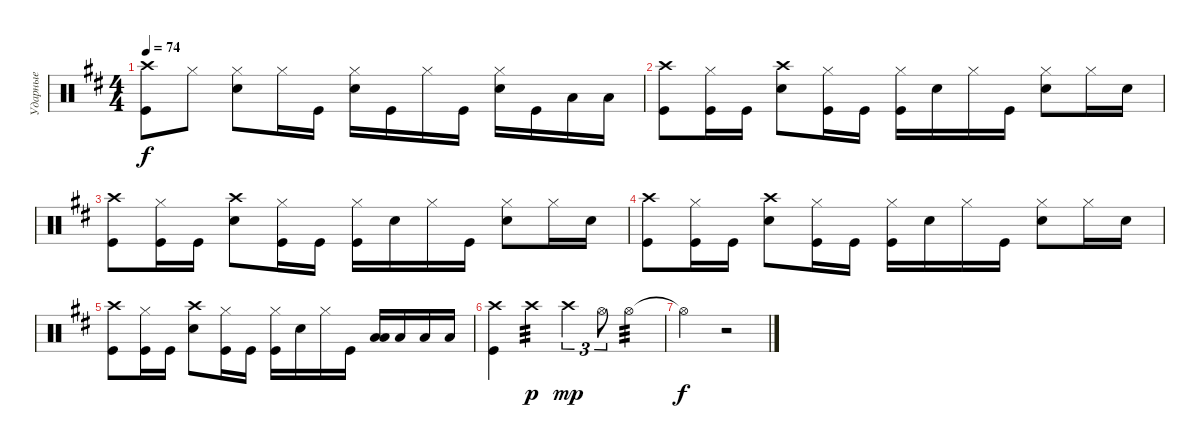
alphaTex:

\track ("Ударные" "Ударные") {instrument percussion}
\staff {score}
\articulation defaults
\ts (4 4)
\tempo 74
\clef neutral
\ks bminor
("Kick (hit)" "Crash high (hit)").8{dy f} "Hi-Hat (closed)".8 ("Snare (hit) 2" "Hi-Hat (closed)").8 "Hi-Hat (closed)".16 "Kick (hit)".16 ("Snare (hit) 2" "Hi-Hat (closed)").16 "Kick (hit)".16 "Hi-Hat (closed)".16 "Kick (hit)".16 ("Snare (hit) 2" "Hi-Hat (closed)").16 "Kick (hit)".16 "Low Tom (hit)".16 "Low Tom (hit)".16 |
("Kick (hit)" "Crash high (hit)").8 ("Hi-Hat (closed)" "Kick (hit)").16 "Kick (hit)".16 ("Snare (hit) 2" "Crash high (hit)").8 ("Hi-Hat (closed)" "Kick (hit)").16 "Kick (hit)".16 ("Hi-Hat (closed)" "Kick (hit)").16 "Snare (hit) 2".16 "Hi-Hat (closed)".16 "Kick (hit)".16 ("Hi-Hat (closed)" "Snare (hit) 2").8 "Hi-Hat (closed)".16 "Snare (hit) 2".16 |
("Kick (hit)" "Crash high (hit)").8 ("Hi-Hat (closed)" "Kick (hit)").16 "Kick (hit)".16 ("Snare (hit) 2" "Crash high (hit)").8 ("Hi-Hat (closed)" "Kick (hit)").16 "Kick (hit)".16 ("Hi-Hat (closed)" "Kick (hit)").16 "Snare (hit) 2".16 "Hi-Hat (closed)".16 "Kick (hit)".16 ("Hi-Hat (closed)" "Snare (hit) 2").8 "Hi-Hat (closed)".16 "Snare (hit) 2".16 |
("Kick (hit)" "Crash high (hit)").8 ("Hi-Hat (closed)" "Kick (hit)").16 "Kick (hit)".16 ("Snare (hit) 2" "Crash high (hit)").8 ("Hi-Hat (closed)" "Kick (hit)").16 "Kick (hit)".16 ("Hi-Hat (closed)" "Kick (hit)").16 "Snare (hit) 2".16 "Hi-Hat (closed)".16 "Kick (hit)".16 ("Hi-Hat (closed)" "Snare (hit) 2").8 "Hi-Hat (closed)".16 "Snare (hit) 2".16 |
("Kick (hit)" "Crash high (hit)").8 ("Hi-Hat (closed)" "Kick (hit)").16 "Kick (hit)".16 ("Snare (hit) 2" "Crash high (hit)").8 ("Hi-Hat (closed)" "Kick (hit)").16 "Kick (hit)".16 ("Hi-Hat (closed)" "Kick (hit)").16 "Snare (hit) 2".16 "Hi-Hat (closed)".16 "Kick (hit)".16 ("Low Tom (hit)" "Low Tom (hit)").16{bd 240} "Low Floor Tom (hit)".16 "Low Tom (hit)".16 "Low Tom (hit)".16 |
("Kick (hit)" "Crash high (hit)").4 "Crash high (hit)".4{tp 3 dy p} "Crash high (hit)".4{tu (3 2) dy mp} "Hi-Hat (open)".8{tu (3 2)} "Hi-Hat (open)".4{tp 3 volume 0} |
"Hi-Hat (open)"{t}.2{dy f} r.2
